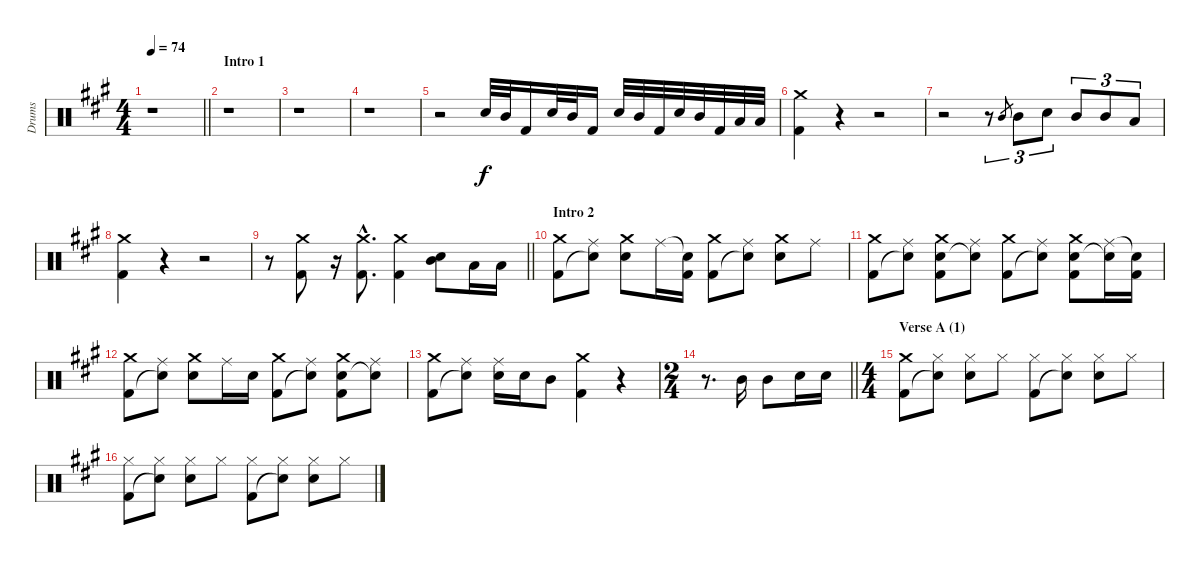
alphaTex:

\track ("Drums" "Drums") {instrument percussion}
\staff {score}
\articulation defaults
\ts (4 4)
\tempo 74
\clef neutral
\barLineRight lightlight
\ks f#minor
r.1{dy f} |
\section ("" "Intro 1")
r.1 |
r.1 |
r.1 |
r.2 "Electric Snare (hit)".32 "Mid Tom (hit)".32 "Kick (hit) 2".16 "Electric Snare (hit)".32 "Mid Tom (hit)".32 "Kick (hit) 2".16 "Electric Snare (hit)".32 "Mid Tom (hit)".32 "Kick (hit) 2".32 "Electric Snare (hit)".32 "Mid Tom (hit)".32 "Kick (hit) 2".32 "Low Floor Tom (hit)".32 "Low Floor Tom (hit)".32 |
("Crash medium (hit)" "Kick (hit) 2").4 r.4 r.2 |
r.2 r.8{tu (3 2)} "Mid Tom (hit)".8{gr} "Mid Tom (hit)".8{tu (3 2)} "Electric Snare (hit)".8{tu (3 2)} "Mid Tom (hit)".8{tu (3 2)} "Mid Tom (hit)".8{tu (3 2)} "Low Floor Tom (hit)".8{tu (3 2)} |
("Crash medium (hit)" "Kick (hit) 2").4 r.4 r.2 |
\barLineRight lightlight
r.8 ("Crash medium (hit)" "Kick (hit) 2").8 r.16 ("Crash medium (hit)"{hac} "Kick (hit) 2"{hac}).8{d} ("Crash medium (hit)" "Kick (hit) 2").4 ("Electric Snare (hit)" "Mid Tom (hit)").8 "Low Floor Tom (hit)".16 "Low Floor Tom (hit)".16 |
\section ("" "Intro 2")
("Crash medium (hit)" "Kick (hit) 2").8 ("Ride (middle)" "Snare (hit)"{t}).8 ("Crash medium (hit)" "Electric Snare (hit)").8 "Ride (middle)".16 ("Snare (hit)"{t} "Kick (hit) 2").16 ("Crash medium (hit)" "Kick (hit) 2").8 ("Ride (middle)" "Snare (hit)"{t}).8 ("Crash medium (hit)" "Electric Snare (hit)").8 "Ride (middle)".8 |
("Crash medium (hit)" "Kick (hit) 2").8 ("Ride (middle)" "Snare (hit)"{t}).8 ("Crash medium (hit)" "Electric Snare (hit)" "Kick (hit) 2").8 ("Ride (middle)" "Snare (hit)"{t}).8 ("Crash medium (hit)" "Kick (hit) 2").8 ("Ride (middle)" "Snare (hit)"{t}).8 ("Crash medium (hit)" "Electric Snare (hit)" "Kick (hit) 2").8 ("Ride (middle)" "Snare (hit)"{t}).16 ("Snare (hit)"{t} "Kick (hit) 2").16 |
("Crash medium (hit)" "Kick (hit) 2").8 ("Ride (middle)" "Snare (hit)"{t}).8 ("Crash medium (hit)" "Electric Snare (hit)").8 "Ride (middle)".16 "Electric Snare (hit)".16 ("Crash medium (hit)" "Kick (hit) 2").8 ("Ride (middle)" "Snare (hit)"{t}).8 ("Crash medium (hit)" "Electric Snare (hit)" "Kick (hit) 2").8 ("Ride (middle)" "Snare (hit)"{t}).8 |
("Crash medium (hit)" "Kick (hit) 2").8 ("Ride (middle)" "Snare (hit)"{t}).8 ("Ride (middle)" "Electric Snare (hit)").16 "Electric Snare (hit)".16 "Mid Tom (hit)".8 ("Crash medium (hit)" "Kick (hit) 2").4 r.4 |
\ts (2 4)
\barLineRight lightlight
r.8{d} "Mid Tom (hit)".16 "Mid Tom (hit)".8 "Electric Snare (hit)".16 "Electric Snare (hit)".16 |
\ts (4 4)
\section ("" "Verse A (1)")
("Crash medium (hit)" "Kick (hit) 2").8 ("Hi-Hat (closed)" "Snare (hit)"{t}).8 ("Hi-Hat (closed)" "Electric Snare (hit)").8 "Hi-Hat (closed)".8 ("Hi-Hat (closed)" "Kick (hit) 2").8 ("Hi-Hat (closed)" "Snare (hit)"{t}).8 ("Hi-Hat (closed)" "Electric Snare (hit)").8 "Hi-Hat (closed)".8 |
("Hi-Hat (closed)" "Kick (hit) 2").8 ("Hi-Hat (closed)" "Snare (hit)"{t}).8 ("Hi-Hat (closed)" "Electric Snare (hit)").8 "Hi-Hat (closed)".8 ("Hi-Hat (closed)" "Kick (hit) 2").8 ("Hi-Hat (closed)" "Snare (hit)"{t}).8 ("Hi-Hat (closed)" "Electric Snare (hit)").8 "Hi-Hat (closed)".8
